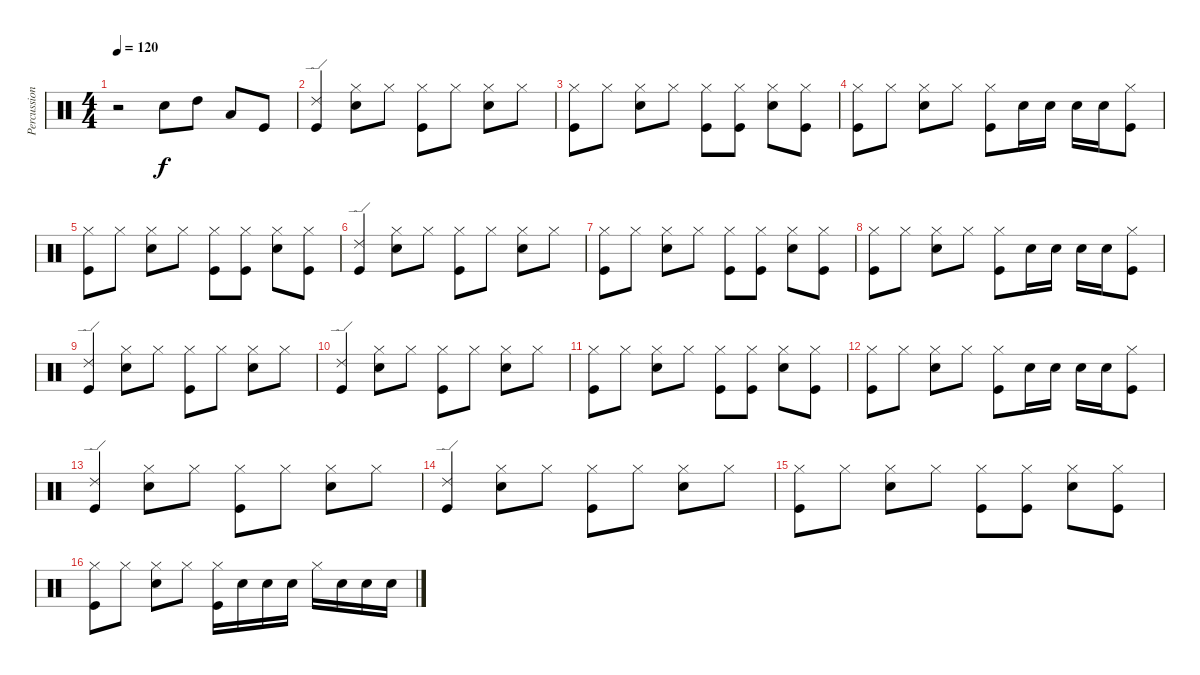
\track ("Percussions" "Percussion") {instrument percussion}
\staff {score}
\articulation defaults
\ts (4 4)
\tempo 120
\clef neutral
\ks c
r.2{dy f} "Snare (hit) 2".8 "High Tom (hit)".8 "Low Tom (hit)".8 "Kick (hit)".8 |
("Ride (edge) 2" "Kick (hit)").4 ("Hi-Hat (closed)" "Snare (hit) 2").8 "Hi-Hat (closed)".8 ("Hi-Hat (closed)" "Kick (hit)").8 "Hi-Hat (closed)".8 ("Hi-Hat (closed)" "Snare (hit) 2").8 "Hi-Hat (closed)".8 |
("Hi-Hat (closed)" "Kick (hit)").8 "Hi-Hat (closed)".8 ("Hi-Hat (closed)" "Snare (hit) 2").8 "Hi-Hat (closed)".8 ("Hi-Hat (closed)" "Kick (hit)").8 ("Hi-Hat (closed)" "Kick (hit)").8 ("Hi-Hat (closed)" "Snare (hit) 2").8 ("Hi-Hat (closed)" "Kick (hit)").8 |
("Hi-Hat (closed)" "Kick (hit)").8 "Hi-Hat (closed)".8 ("Hi-Hat (closed)" "Snare (hit) 2").8 "Hi-Hat (closed)".8 ("Hi-Hat (closed)" "Kick (hit)").8 "Snare (hit) 2".16 "Snare (hit) 2".16 "Snare (hit) 2".16 "Snare (hit) 2".16 ("Hi-Hat (closed)" "Kick (hit)").8 |
("Hi-Hat (closed)" "Kick (hit)").8 "Hi-Hat (closed)".8 ("Hi-Hat (closed)" "Snare (hit) 2").8 "Hi-Hat (closed)".8 ("Hi-Hat (closed)" "Kick (hit)").8 ("Hi-Hat (closed)" "Kick (hit)").8 ("Hi-Hat (closed)" "Snare (hit) 2").8 ("Hi-Hat (closed)" "Kick (hit)").8 |
("Ride (edge) 2" "Kick (hit)").4 ("Hi-Hat (closed)" "Snare (hit) 2").8 "Hi-Hat (closed)".8 ("Hi-Hat (closed)" "Kick (hit)").8 "Hi-Hat (closed)".8 ("Hi-Hat (closed)" "Snare (hit) 2").8 "Hi-Hat (closed)".8 |
("Hi-Hat (closed)" "Kick (hit)").8 "Hi-Hat (closed)".8 ("Hi-Hat (closed)" "Snare (hit) 2").8 "Hi-Hat (closed)".8 ("Hi-Hat (closed)" "Kick (hit)").8 ("Hi-Hat (closed)" "Kick (hit)").8 ("Hi-Hat (closed)" "Snare (hit) 2").8 ("Hi-Hat (closed)" "Kick (hit)").8 |
("Hi-Hat (closed)" "Kick (hit)").8 "Hi-Hat (closed)".8 ("Hi-Hat (closed)" "Snare (hit) 2").8 "Hi-Hat (closed)".8 ("Hi-Hat (closed)" "Kick (hit)").8 "Snare (hit) 2".16 "Snare (hit) 2".16 "Snare (hit) 2".16 "Snare (hit) 2".16 ("Hi-Hat (closed)" "Kick (hit)").8 |
("Ride (edge) 2" "Kick (hit)").4 ("Hi-Hat (closed)" "Snare (hit) 2").8 "Hi-Hat (closed)".8 ("Hi-Hat (closed)" "Kick (hit)").8 "Hi-Hat (closed)".8 ("Hi-Hat (closed)" "Snare (hit) 2").8 "Hi-Hat (closed)".8 |
("Ride (edge) 2" "Kick (hit)").4 ("Hi-Hat (closed)" "Snare (hit) 2").8 "Hi-Hat (closed)".8 ("Hi-Hat (closed)" "Kick (hit)").8 "Hi-Hat (closed)".8 ("Hi-Hat (closed)" "Snare (hit) 2").8 "Hi-Hat (closed)".8 |
("Hi-Hat (closed)" "Kick (hit)").8 "Hi-Hat (closed)".8 ("Hi-Hat (closed)" "Snare (hit) 2").8 "Hi-Hat (closed)".8 ("Hi-Hat (closed)" "Kick (hit)").8 ("Hi-Hat (closed)" "Kick (hit)").8 ("Hi-Hat (closed)" "Snare (hit) 2").8 ("Hi-Hat (closed)" "Kick (hit)").8 |
("Hi-Hat (closed)" "Kick (hit)").8 "Hi-Hat (closed)".8 ("Hi-Hat (closed)" "Snare (hit) 2").8 "Hi-Hat (closed)".8 ("Hi-Hat (closed)" "Kick (hit)").8 "Snare (hit) 2".16 "Snare (hit) 2".16 "Snare (hit) 2".16 "Snare (hit) 2".16 ("Hi-Hat (closed)" "Kick (hit)").8 |
("Ride (edge) 2" "Kick (hit)").4 ("Hi-Hat (closed)" "Snare (hit) 2").8 "Hi-Hat (closed)".8 ("Hi-Hat (closed)" "Kick (hit)").8 "Hi-Hat (closed)".8 ("Hi-Hat (closed)" "Snare (hit) 2").8 "Hi-Hat (closed)".8 |
("Ride (edge) 2" "Kick (hit)").4 ("Hi-Hat (closed)" "Snare (hit) 2").8 "Hi-Hat (closed)".8 ("Hi-Hat (closed)" "Kick (hit)").8 "Hi-Hat (closed)".8 ("Hi-Hat (closed)" "Snare (hit) 2").8 "Hi-Hat (closed)".8 |
("Hi-Hat (closed)" "Kick (hit)").8 "Hi-Hat (closed)".8 ("Hi-Hat (closed)" "Snare (hit) 2").8 "Hi-Hat (closed)".8 ("Hi-Hat (closed)" "Kick (hit)").8 ("Hi-Hat (closed)" "Kick (hit)").8 ("Hi-Hat (closed)" "Snare (hit) 2").8 ("Hi-Hat (closed)" "Kick (hit)").8 |
("Hi-Hat (closed)" "Kick (hit)").8 "Hi-Hat (closed)".8 ("Hi-Hat (closed)" "Snare (hit) 2").8 "Hi-Hat (closed)".8 ("Hi-Hat (closed)" "Kick (hit)").16 "Snare (hit) 2".16 "Snare (hit) 2".16 "Snare (hit) 2".16 "Hi-Hat (closed)".16 "Snare (hit) 2".16 "Snare (hit) 2".16 "Snare (hit) 2".16
